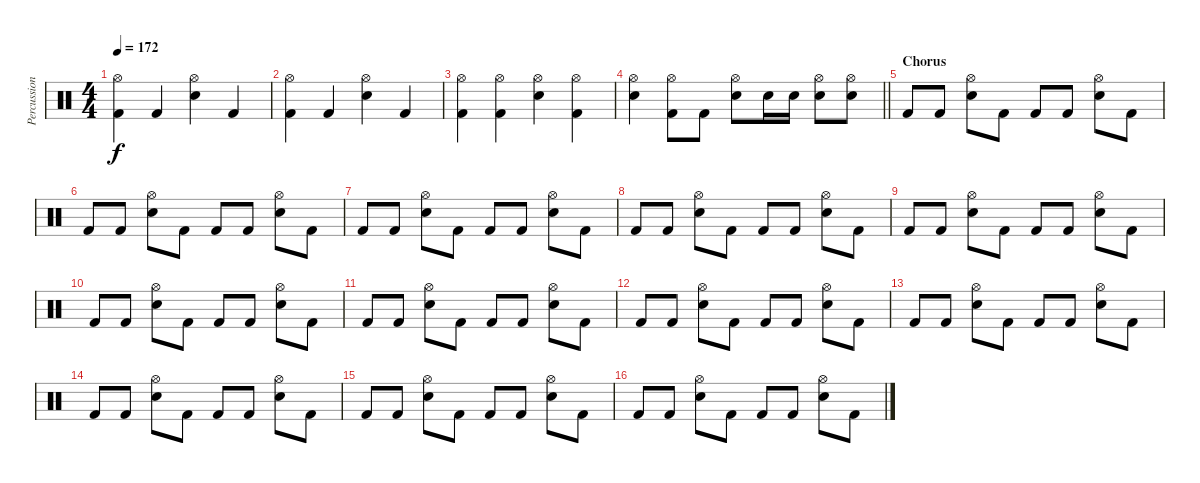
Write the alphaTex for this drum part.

\track ("Percussion" "Percussion") {instrument percussion}
\staff {score}
\articulation defaults
\ts (4 4)
\tempo 172
\clef neutral
\ks c
("Hi-Hat (open)" "Kick (hit) 2").4{dy f} "Kick (hit) 2".4 ("Hi-Hat (open)" "Electric Snare (hit)").4 "Kick (hit) 2".4 |
("Hi-Hat (open)" "Kick (hit) 2").4 "Kick (hit) 2".4 ("Hi-Hat (open)" "Electric Snare (hit)").4 "Kick (hit) 2".4 |
("Hi-Hat (open)" "Kick (hit) 2").4 ("Hi-Hat (open)" "Kick (hit) 2").4 ("Hi-Hat (open)" "Electric Snare (hit)").4 ("Hi-Hat (open)" "Kick (hit) 2").4 |
\barLineRight lightlight
("Hi-Hat (open)" "Electric Snare (hit)").4 ("Hi-Hat (open)" "Kick (hit) 2").8 "Kick (hit) 2".8 ("Hi-Hat (open)" "Electric Snare (hit)").8 "Electric Snare (hit)".16 "Electric Snare (hit)".16 ("Hi-Hat (open)" "Electric Snare (hit)").8 ("Hi-Hat (open)" "Electric Snare (hit)").8 |
\section ("" "Chorus ")
"Kick (hit) 2".8 "Kick (hit) 2".8 ("Hi-Hat (open)" "Electric Snare (hit)").8 "Kick (hit) 2".8 "Kick (hit) 2".8 "Kick (hit) 2".8 ("Hi-Hat (open)" "Electric Snare (hit)").8 "Kick (hit) 2".8 |
"Kick (hit) 2".8 "Kick (hit) 2".8 ("Hi-Hat (open)" "Electric Snare (hit)").8 "Kick (hit) 2".8 "Kick (hit) 2".8 "Kick (hit) 2".8 ("Hi-Hat (open)" "Electric Snare (hit)").8 "Kick (hit) 2".8 |
"Kick (hit) 2".8 "Kick (hit) 2".8 ("Hi-Hat (open)" "Electric Snare (hit)").8 "Kick (hit) 2".8 "Kick (hit) 2".8 "Kick (hit) 2".8 ("Hi-Hat (open)" "Electric Snare (hit)").8 "Kick (hit) 2".8 |
"Kick (hit) 2".8 "Kick (hit) 2".8 ("Hi-Hat (open)" "Electric Snare (hit)").8 "Kick (hit) 2".8 "Kick (hit) 2".8 "Kick (hit) 2".8 ("Hi-Hat (open)" "Electric Snare (hit)").8 "Kick (hit) 2".8 |
"Kick (hit) 2".8 "Kick (hit) 2".8 ("Hi-Hat (open)" "Electric Snare (hit)").8 "Kick (hit) 2".8 "Kick (hit) 2".8 "Kick (hit) 2".8 ("Hi-Hat (open)" "Electric Snare (hit)").8 "Kick (hit) 2".8 |
"Kick (hit) 2".8 "Kick (hit) 2".8 ("Hi-Hat (open)" "Electric Snare (hit)").8 "Kick (hit) 2".8 "Kick (hit) 2".8 "Kick (hit) 2".8 ("Hi-Hat (open)" "Electric Snare (hit)").8 "Kick (hit) 2".8 |
"Kick (hit) 2".8 "Kick (hit) 2".8 ("Hi-Hat (open)" "Electric Snare (hit)").8 "Kick (hit) 2".8 "Kick (hit) 2".8 "Kick (hit) 2".8 ("Hi-Hat (open)" "Electric Snare (hit)").8 "Kick (hit) 2".8 |
"Kick (hit) 2".8 "Kick (hit) 2".8 ("Hi-Hat (open)" "Electric Snare (hit)").8 "Kick (hit) 2".8 "Kick (hit) 2".8 "Kick (hit) 2".8 ("Hi-Hat (open)" "Electric Snare (hit)").8 "Kick (hit) 2".8 |
"Kick (hit) 2".8 "Kick (hit) 2".8 ("Hi-Hat (open)" "Electric Snare (hit)").8 "Kick (hit) 2".8 "Kick (hit) 2".8 "Kick (hit) 2".8 ("Hi-Hat (open)" "Electric Snare (hit)").8 "Kick (hit) 2".8 |
"Kick (hit) 2".8 "Kick (hit) 2".8 ("Hi-Hat (open)" "Electric Snare (hit)").8 "Kick (hit) 2".8 "Kick (hit) 2".8 "Kick (hit) 2".8 ("Hi-Hat (open)" "Electric Snare (hit)").8 "Kick (hit) 2".8 |
"Kick (hit) 2".8 "Kick (hit) 2".8 ("Hi-Hat (open)" "Electric Snare (hit)").8 "Kick (hit) 2".8 "Kick (hit) 2".8 "Kick (hit) 2".8 ("Hi-Hat (open)" "Electric Snare (hit)").8 "Kick (hit) 2".8 |
"Kick (hit) 2".8 "Kick (hit) 2".8 ("Hi-Hat (open)" "Electric Snare (hit)").8 "Kick (hit) 2".8 "Kick (hit) 2".8 "Kick (hit) 2".8 ("Hi-Hat (open)" "Electric Snare (hit)").8 "Kick (hit) 2".8
